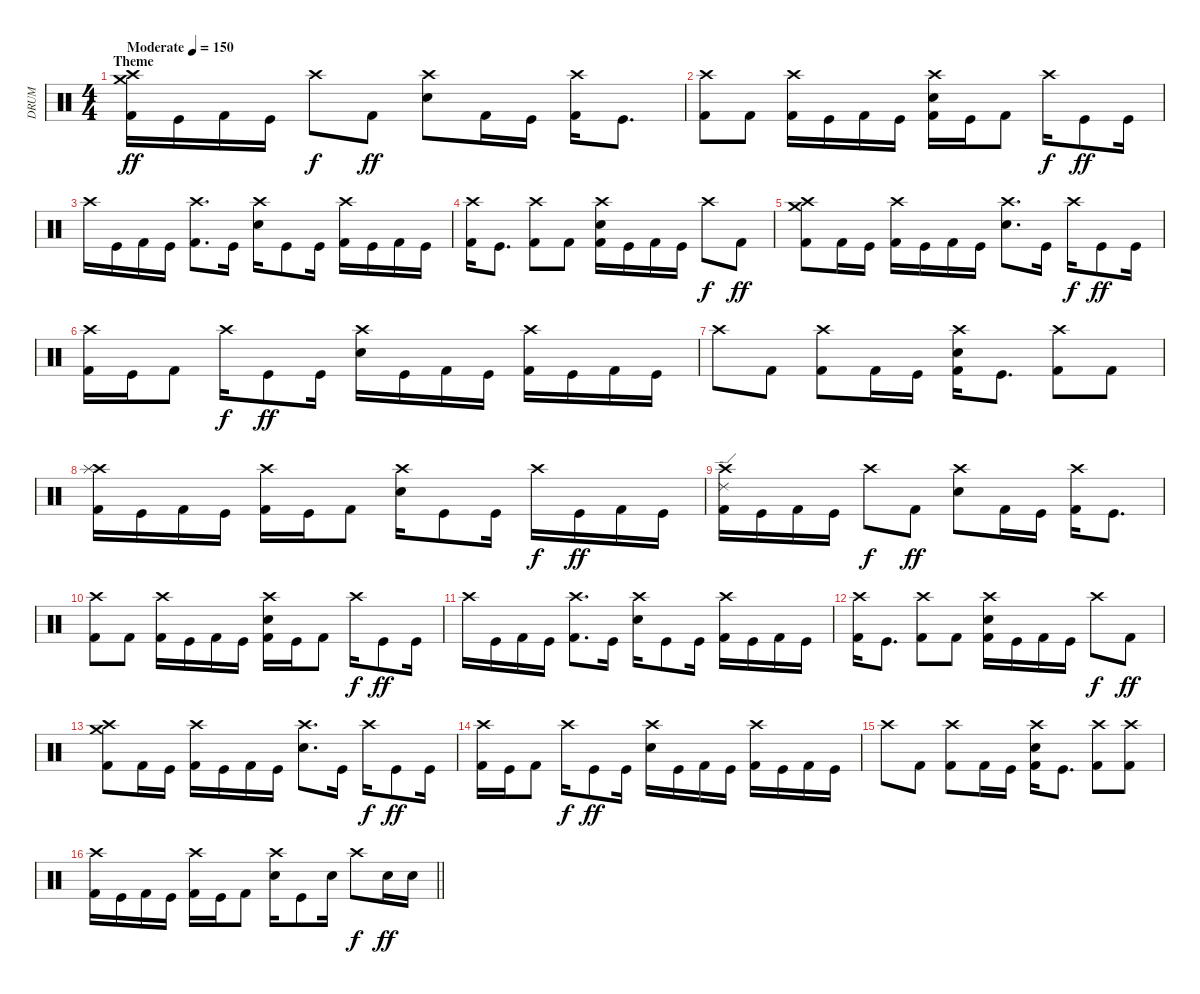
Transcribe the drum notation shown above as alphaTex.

\track ("DRUM" "DRUM") {instrument percussion}
\staff {score}
\articulation defaults
\ts (4 4)
\section ("" "Theme")
\tempo (150 "Moderate")
\clef neutral
\ks c
("Crash high (hit)" "Crash medium (hit)" "Kick (hit) 2").16{dy ff} "Kick (hit)".16 "Kick (hit) 2".16 "Kick (hit)".16 "Crash high (hit)".8{dy f} "Kick (hit) 2".8{dy ff} ("Crash high (hit)" "Snare (hit) 2").8 "Kick (hit) 2".16 "Kick (hit)".16 ("Crash high (hit)" "Kick (hit) 2").16 "Kick (hit)".8{d} |
("Crash high (hit)" "Kick (hit) 2").8 "Kick (hit) 2".8 ("Crash high (hit)" "Kick (hit) 2").16 "Kick (hit)".16 "Kick (hit) 2".16 "Kick (hit)".16 ("Crash high (hit)" "Snare (hit) 2" "Kick (hit) 2").16 "Kick (hit)".16 "Kick (hit) 2".8 "Crash high (hit)".16{dy f} "Kick (hit)".8{dy ff} "Kick (hit)".16 |
"Crash high (hit)".16 "Kick (hit)".16 "Kick (hit) 2".16 "Kick (hit)".16 ("Crash high (hit)" "Kick (hit) 2").8{d} "Kick (hit)".16 ("Crash high (hit)" "Snare (hit) 2").16 "Kick (hit)".8 "Kick (hit)".16 ("Crash high (hit)" "Kick (hit) 2").16 "Kick (hit)".16 "Kick (hit) 2".16 "Kick (hit)".16 |
("Crash high (hit)" "Kick (hit) 2").16 "Kick (hit)".8{d} ("Crash high (hit)" "Kick (hit) 2").8 "Kick (hit) 2".8 ("Crash high (hit)" "Snare (hit) 2" "Kick (hit) 2").16 "Kick (hit)".16 "Kick (hit) 2".16 "Kick (hit)".16 "Crash high (hit)".8{dy f} "Kick (hit) 2".8{dy ff} |
("Crash high (hit)" "Crash medium (hit)" "Kick (hit) 2").8 "Kick (hit) 2".16 "Kick (hit)".16 ("Crash high (hit)" "Kick (hit) 2").16 "Kick (hit)".16 "Kick (hit) 2".16 "Kick (hit)".16 ("Crash high (hit)" "Snare (hit) 2").8{d} "Kick (hit)".16 "Crash high (hit)".16{dy f} "Kick (hit)".8{dy ff} "Kick (hit)".16 |
("Crash high (hit)" "Kick (hit) 2").16 "Kick (hit)".16 "Kick (hit) 2".8 "Crash high (hit)".16{dy f} "Kick (hit)".8{dy ff} "Kick (hit)".16 ("Crash high (hit)" "Snare (hit) 2").16 "Kick (hit)".16 "Kick (hit) 2".16 "Kick (hit)".16 ("Crash high (hit)" "Kick (hit) 2").16 "Kick (hit)".16 "Kick (hit) 2".16 "Kick (hit)".16 |
"Crash high (hit)".8 "Kick (hit) 2".8 ("Crash high (hit)" "Kick (hit) 2").8 "Kick (hit) 2".16 "Kick (hit)".16 ("Crash high (hit)" "Snare (hit) 2" "Kick (hit) 2").16 "Kick (hit)".8{d} ("Crash high (hit)" "Kick (hit) 2").8 "Kick (hit) 2".8 |
("Crash high (hit)" "Splash (hit)" "Kick (hit) 2").16 "Kick (hit)".16 "Kick (hit) 2".16 "Kick (hit)".16 ("Crash high (hit)" "Kick (hit) 2").16 "Kick (hit)".16 "Kick (hit) 2".8 ("Crash high (hit)" "Snare (hit) 2").16 "Kick (hit)".8 "Kick (hit)".16 "Crash high (hit)".16{dy f} "Kick (hit)".16{dy ff} "Kick (hit) 2".16 "Kick (hit)".16 |
("Crash high (hit)" "Ride (edge) 2" "Kick (hit) 2").16 "Kick (hit)".16 "Kick (hit) 2".16 "Kick (hit)".16 "Crash high (hit)".8{dy f} "Kick (hit) 2".8{dy ff} ("Crash high (hit)" "Snare (hit) 2").8 "Kick (hit) 2".16 "Kick (hit)".16 ("Crash high (hit)" "Kick (hit) 2").16 "Kick (hit)".8{d} |
("Crash high (hit)" "Kick (hit) 2").8 "Kick (hit) 2".8 ("Crash high (hit)" "Kick (hit) 2").16 "Kick (hit)".16 "Kick (hit) 2".16 "Kick (hit)".16 ("Crash high (hit)" "Snare (hit) 2" "Kick (hit) 2").16 "Kick (hit)".16 "Kick (hit) 2".8 "Crash high (hit)".16{dy f} "Kick (hit)".8{dy ff} "Kick (hit)".16 |
"Crash high (hit)".16 "Kick (hit)".16 "Kick (hit) 2".16 "Kick (hit)".16 ("Crash high (hit)" "Kick (hit) 2").8{d} "Kick (hit)".16 ("Crash high (hit)" "Snare (hit) 2").16 "Kick (hit)".8 "Kick (hit)".16 ("Crash high (hit)" "Kick (hit) 2").16 "Kick (hit)".16 "Kick (hit) 2".16 "Kick (hit)".16 |
("Crash high (hit)" "Kick (hit) 2").16 "Kick (hit)".8{d} ("Crash high (hit)" "Kick (hit) 2").8 "Kick (hit) 2".8 ("Crash high (hit)" "Snare (hit) 2" "Kick (hit) 2").16 "Kick (hit)".16 "Kick (hit) 2".16 "Kick (hit)".16 "Crash high (hit)".8{dy f} "Kick (hit) 2".8{dy ff} |
("Crash high (hit)" "Crash medium (hit)" "Kick (hit) 2").8 "Kick (hit) 2".16 "Kick (hit)".16 ("Crash high (hit)" "Kick (hit) 2").16 "Kick (hit)".16 "Kick (hit) 2".16 "Kick (hit)".16 ("Crash high (hit)" "Snare (hit) 2").8{d} "Kick (hit)".16 "Crash high (hit)".16{dy f} "Kick (hit)".8{dy ff} "Kick (hit)".16 |
("Crash high (hit)" "Kick (hit) 2").16 "Kick (hit)".16 "Kick (hit) 2".8 "Crash high (hit)".16{dy f} "Kick (hit)".8{dy ff} "Kick (hit)".16 ("Crash high (hit)" "Snare (hit) 2").16 "Kick (hit)".16 "Kick (hit) 2".16 "Kick (hit)".16 ("Crash high (hit)" "Kick (hit) 2").16 "Kick (hit)".16 "Kick (hit) 2".16 "Kick (hit)".16 |
"Crash high (hit)".8 "Kick (hit) 2".8 ("Crash high (hit)" "Kick (hit) 2").8 "Kick (hit) 2".16 "Kick (hit)".16 ("Crash high (hit)" "Snare (hit) 2" "Kick (hit) 2").16 "Kick (hit)".8{d} ("Crash high (hit)" "Kick (hit) 2").8 ("Crash high (hit)" "Kick (hit) 2").8 |
\barLineRight lightlight
("Crash high (hit)" "Kick (hit) 2").16 "Kick (hit)".16 "Kick (hit) 2".16 "Kick (hit)".16 ("Crash high (hit)" "Kick (hit) 2").16 "Kick (hit)".16 "Kick (hit) 2".8 ("Crash high (hit)" "Snare (hit) 2").16 "Kick (hit)".8 "Snare (hit) 2".16 "Crash high (hit)".8{dy f} "Electric Snare (hit)".16{dy ff} "Snare (hit) 2".16
